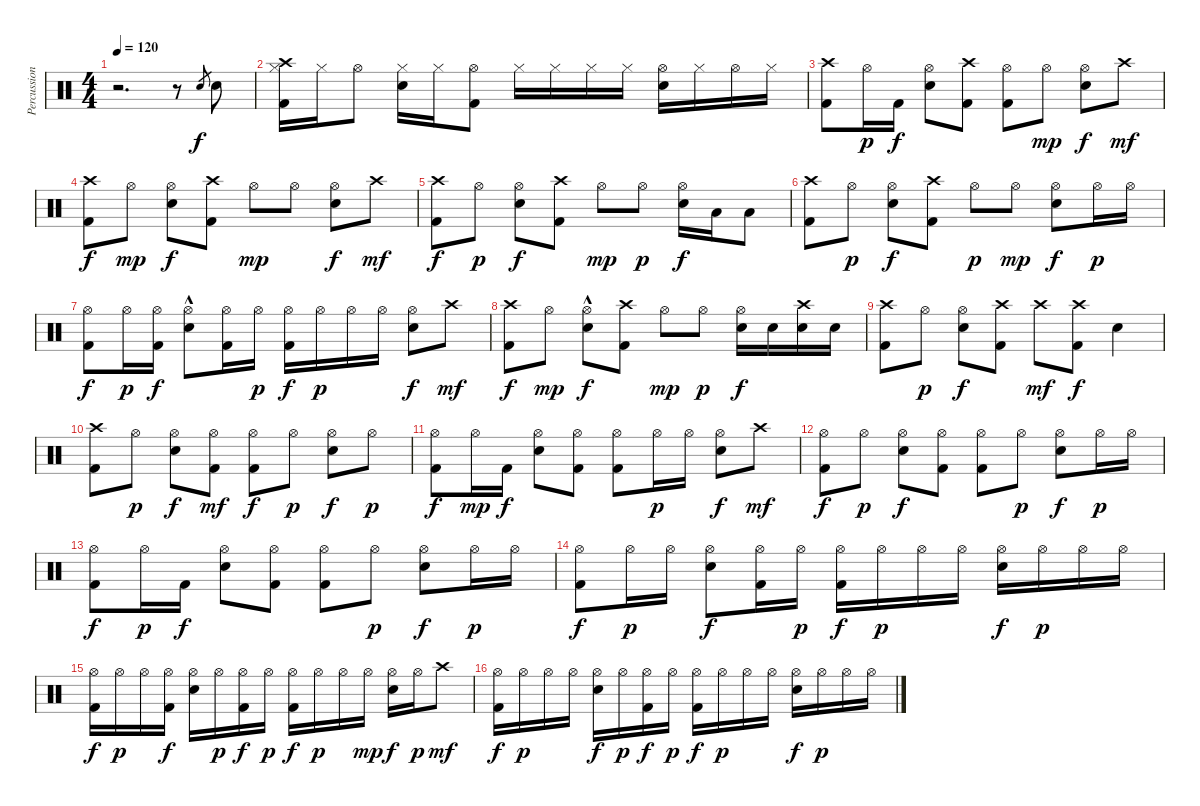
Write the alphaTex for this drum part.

\track ("Percussion" "Percussion") {instrument percussion}
\staff {score}
\articulation defaults
\ts (4 4)
\tempo 120
\clef neutral
\ks c
r.2{d dy f} r.8 "Electric Snare (hit)".8{gr} "Electric Snare (hit)".8 |
("Hi-Hat (closed)" "Crash high (hit)" "Kick (hit) 2").16 "Hi-Hat (closed)".16 "Hi-Hat (open)".8 ("Hi-Hat (closed)" "Electric Snare (hit)").16 "Hi-Hat (closed)".16 ("Hi-Hat (open)" "Kick (hit) 2").8 "Hi-Hat (closed)".16 "Hi-Hat (closed)".16 "Hi-Hat (closed)".16 "Hi-Hat (closed)".16 ("Hi-Hat (open)" "Electric Snare (hit)").16 "Hi-Hat (closed)".16 "Hi-Hat (open)".16 "Hi-Hat (closed)".16 |
("Crash high (hit)" "Kick (hit) 2").8 "Hi-Hat (open)".16{dy p} "Kick (hit) 2".16{dy f} ("Hi-Hat (open)" "Electric Snare (hit)").8 ("Crash high (hit)" "Kick (hit) 2").8 ("Hi-Hat (open)" "Kick (hit) 2").8 "Hi-Hat (open)".8{dy mp} ("Hi-Hat (open)" "Electric Snare (hit)").8{dy f} "Crash high (hit)".8{dy mf} |
("Crash high (hit)" "Kick (hit) 2").8{dy f} "Hi-Hat (open)".8{dy mp} ("Hi-Hat (open)" "Electric Snare (hit)").8{dy f} ("Crash high (hit)" "Kick (hit) 2").8 "Hi-Hat (open)".8{dy mp} "Hi-Hat (open)".8 ("Hi-Hat (open)" "Electric Snare (hit)").8{dy f} "Crash high (hit)".8{dy mf} |
("Crash high (hit)" "Kick (hit) 2").8{dy f} "Hi-Hat (open)".8{dy p} ("Hi-Hat (open)" "Electric Snare (hit)").8{dy f} ("Crash high (hit)" "Kick (hit) 2").8 "Hi-Hat (open)".8{dy mp} "Hi-Hat (open)".8{dy p} ("Hi-Hat (open)" "Electric Snare (hit)").16{dy f} "Low Tom (hit)".16 "Low Floor Tom (hit)".8 |
("Crash high (hit)" "Kick (hit) 2").8 "Hi-Hat (open)".8{dy p} ("Hi-Hat (open)" "Electric Snare (hit)").8{dy f} ("Crash high (hit)" "Kick (hit) 2").8 "Hi-Hat (open)".8{dy p} "Hi-Hat (open)".8{dy mp} ("Hi-Hat (open)" "Electric Snare (hit)").8{dy f} "Hi-Hat (open)".16{dy p} "Hi-Hat (open)".16 |
("Hi-Hat (open)" "Kick (hit) 2").8{dy f} "Hi-Hat (open)".16{dy p} ("Hi-Hat (open)" "Kick (hit) 2").16{dy f} ("Hi-Hat (open)"{hac} "Electric Snare (hit)").8 ("Hi-Hat (open)" "Kick (hit) 2").16 "Hi-Hat (open)".16{dy p} ("Hi-Hat (open)" "Kick (hit) 2").16{dy f} "Hi-Hat (open)".16{dy p} "Hi-Hat (open)".16 "Hi-Hat (open)".16 ("Hi-Hat (open)" "Electric Snare (hit)").8{dy f} "Crash high (hit)".8{dy mf} |
("Crash high (hit)" "Kick (hit) 2").8{dy f} "Hi-Hat (open)".8{dy mp} ("Hi-Hat (open)"{hac} "Electric Snare (hit)").8{dy f} ("Crash high (hit)" "Kick (hit) 2").8 "Hi-Hat (open)".8{dy mp} "Hi-Hat (open)".8{dy p} ("Hi-Hat (open)" "Electric Snare (hit)").16{dy f} "Electric Snare (hit)".16 ("Crash high (hit)" "Electric Snare (hit)").16 "Electric Snare (hit)".16 |
("Crash high (hit)" "Kick (hit) 2").8 "Hi-Hat (open)".8{dy p} ("Hi-Hat (open)" "Electric Snare (hit)").8{dy f} ("Crash high (hit)" "Kick (hit) 2").8 "Crash high (hit)".8{dy mf} ("Crash high (hit)" "Kick (hit) 2").8{dy f} "Electric Snare (hit)".4 |
("Crash high (hit)" "Kick (hit) 2").8 "Hi-Hat (open)".8{dy p} ("Hi-Hat (open)" "Electric Snare (hit)").8{dy f} ("Hi-Hat (open)" "Kick (hit) 2").8{dy mf} ("Hi-Hat (open)" "Kick (hit) 2").8{dy f} "Hi-Hat (open)".8{dy p} ("Hi-Hat (open)" "Electric Snare (hit)").8{dy f} "Hi-Hat (open)".8{dy p} |
("Hi-Hat (open)" "Kick (hit) 2").8{dy f} "Hi-Hat (open)".16{dy mp} "Kick (hit) 2".16{dy f} ("Hi-Hat (open)" "Electric Snare (hit)").8 ("Hi-Hat (open)" "Kick (hit) 2").8 ("Hi-Hat (open)" "Kick (hit) 2").8 "Hi-Hat (open)".16{dy p} "Hi-Hat (open)".16 ("Hi-Hat (open)" "Electric Snare (hit)").8{dy f} "Crash high (hit)".8{dy mf} |
("Hi-Hat (open)" "Kick (hit) 2").8{dy f} "Hi-Hat (open)".8{dy p} ("Hi-Hat (open)" "Electric Snare (hit)").8{dy f} ("Hi-Hat (open)" "Kick (hit) 2").8 ("Hi-Hat (open)" "Kick (hit) 2").8 "Hi-Hat (open)".8{dy p} ("Hi-Hat (open)" "Electric Snare (hit)").8{dy f} "Hi-Hat (open)".16{dy p} "Hi-Hat (open)".16 |
("Hi-Hat (open)" "Kick (hit) 2").8{dy f} "Hi-Hat (open)".16{dy p} "Kick (hit) 2".16{dy f} ("Hi-Hat (open)" "Electric Snare (hit)").8 ("Hi-Hat (open)" "Kick (hit) 2").8 ("Hi-Hat (open)" "Kick (hit) 2").8 "Hi-Hat (open)".8{dy p} ("Hi-Hat (open)" "Electric Snare (hit)").8{dy f} "Hi-Hat (open)".16{dy p} "Hi-Hat (open)".16 |
("Hi-Hat (open)" "Kick (hit) 2").8{dy f} "Hi-Hat (open)".16{dy p} "Hi-Hat (open)".16 ("Hi-Hat (open)" "Electric Snare (hit)").8{dy f} ("Hi-Hat (open)" "Kick (hit) 2").16 "Hi-Hat (open)".16{dy p} ("Hi-Hat (open)" "Kick (hit) 2").16{dy f} "Hi-Hat (open)".16{dy p} "Hi-Hat (open)".16 "Hi-Hat (open)".16 ("Hi-Hat (open)" "Electric Snare (hit)").16{dy f} "Hi-Hat (open)".16{dy p} "Hi-Hat (open)".16 "Hi-Hat (open)".16 |
("Hi-Hat (open)" "Kick (hit) 2").16{dy f} "Hi-Hat (open)".16{dy p} "Hi-Hat (open)".16 ("Hi-Hat (open)" "Kick (hit) 2").16{dy f} ("Hi-Hat (open)" "Electric Snare (hit)").16 "Hi-Hat (open)".16{dy p} ("Hi-Hat (open)" "Kick (hit) 2").16{dy f} "Hi-Hat (open)".16{dy p} ("Hi-Hat (open)" "Kick (hit) 2").16{dy f} "Hi-Hat (open)".16{dy p} "Hi-Hat (open)".16 "Hi-Hat (open)".16{dy mp} ("Hi-Hat (open)" "Electric Snare (hit)").16{dy f} "Hi-Hat (open)".16{dy p} "Crash high (hit)".8{dy mf} |
("Hi-Hat (open)" "Kick (hit) 2").16{dy f} "Hi-Hat (open)".16{dy p} "Hi-Hat (open)".16 "Hi-Hat (open)".16 ("Hi-Hat (open)" "Electric Snare (hit)").16{dy f} "Hi-Hat (open)".16{dy p} ("Hi-Hat (open)" "Kick (hit) 2").16{dy f} "Hi-Hat (open)".16{dy p} ("Hi-Hat (open)" "Kick (hit) 2").16{dy f} "Hi-Hat (open)".16{dy p} "Hi-Hat (open)".16 "Hi-Hat (open)".16 ("Hi-Hat (open)" "Electric Snare (hit)").16{dy f} "Hi-Hat (open)".16{dy p} "Hi-Hat (open)".16 "Hi-Hat (open)".16
